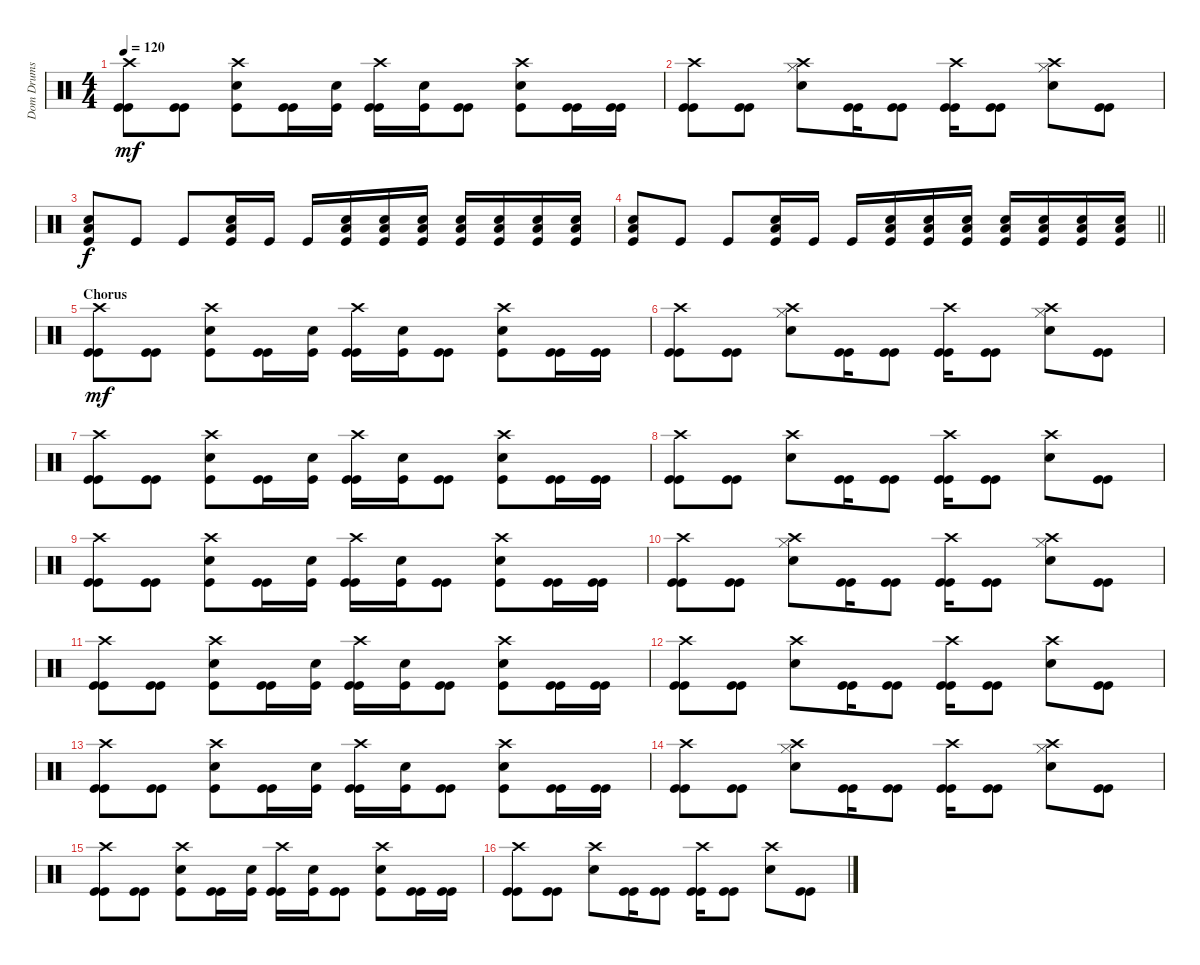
\track ("Dom Drums" "Dom Drums") {instrument percussion}
\staff {score}
\articulation defaults
\ts (4 4)
\tempo 120
\clef neutral
\ks c
("Crash high (hit)" "Kick (hit)" "Kick (hit)").8{dy mf} ("Kick (hit)" "Kick (hit)").8 ("Crash high (hit)" "Kick (hit)" "Electric Snare (hit)").8 ("Kick (hit)" "Kick (hit)").16 ("Kick (hit)" "Electric Snare (hit)").16 ("Crash high (hit)" "Kick (hit)" "Kick (hit)").16 ("Kick (hit)" "Electric Snare (hit)").16 ("Kick (hit)" "Kick (hit)").8 ("Crash high (hit)" "Kick (hit)" "Electric Snare (hit)").8 ("Kick (hit)" "Kick (hit)").16 ("Kick (hit)" "Kick (hit)").16 |
("Kick (hit)" "Kick (hit)" "Crash high (hit)").8 ("Kick (hit)" "Kick (hit)").8 ("Electric Snare (hit)" "Hi-Hat (closed)" "Crash high (hit)").8 ("Kick (hit)" "Kick (hit)").16 ("Kick (hit)" "Kick (hit)").8 ("Kick (hit)" "Kick (hit)" "Crash high (hit)").16 ("Kick (hit)" "Kick (hit)").8 ("Electric Snare (hit)" "Hi-Hat (closed)" "Crash high (hit)").8 ("Kick (hit)" "Kick (hit)").8 |
("Kick (hit)" "Low Floor Tom (hit)" "Hand Clap (hit)").8{dy f} "Kick (hit)".8 "Kick (hit)".8 ("Kick (hit)" "Low Floor Tom (hit)" "Hand Clap (hit)").16 "Kick (hit)".16 "Kick (hit)".16 ("Kick (hit)" "Low Floor Tom (hit)" "Hand Clap (hit)").16 ("Kick (hit)" "Low Floor Tom (hit)" "Hand Clap (hit)").16 ("Kick (hit)" "Low Floor Tom (hit)" "Hand Clap (hit)").16 ("Kick (hit)" "Low Floor Tom (hit)" "Hand Clap (hit)").16 ("Kick (hit)" "Low Floor Tom (hit)" "Hand Clap (hit)").16 ("Kick (hit)" "Low Floor Tom (hit)" "Hand Clap (hit)").16 ("Kick (hit)" "Low Floor Tom (hit)" "Hand Clap (hit)").16 |
\barLineRight lightlight
("Kick (hit)" "Low Floor Tom (hit)" "Hand Clap (hit)").8 "Kick (hit)".8 "Kick (hit)".8 ("Kick (hit)" "Low Floor Tom (hit)" "Hand Clap (hit)").16 "Kick (hit)".16 "Kick (hit)".16 ("Kick (hit)" "Low Floor Tom (hit)" "Hand Clap (hit)").16 ("Kick (hit)" "Low Floor Tom (hit)" "Hand Clap (hit)").16 ("Kick (hit)" "Low Floor Tom (hit)" "Hand Clap (hit)").16 ("Kick (hit)" "Low Floor Tom (hit)" "Hand Clap (hit)").16 ("Kick (hit)" "Low Floor Tom (hit)" "Hand Clap (hit)").16 ("Kick (hit)" "Low Floor Tom (hit)" "Hand Clap (hit)").16 ("Kick (hit)" "Low Floor Tom (hit)" "Hand Clap (hit)").16 |
\section ("" "Chorus")
("Crash high (hit)" "Kick (hit)" "Kick (hit)").8{dy mf} ("Kick (hit)" "Kick (hit)").8 ("Crash high (hit)" "Kick (hit)" "Electric Snare (hit)").8 ("Kick (hit)" "Kick (hit)").16 ("Kick (hit)" "Electric Snare (hit)").16 ("Crash high (hit)" "Kick (hit)" "Kick (hit)").16 ("Kick (hit)" "Electric Snare (hit)").16 ("Kick (hit)" "Kick (hit)").8 ("Crash high (hit)" "Kick (hit)" "Electric Snare (hit)").8 ("Kick (hit)" "Kick (hit)").16 ("Kick (hit)" "Kick (hit)").16 |
("Kick (hit)" "Kick (hit)" "Crash high (hit)").8 ("Kick (hit)" "Kick (hit)").8 ("Electric Snare (hit)" "Hi-Hat (closed)" "Crash high (hit)").8 ("Kick (hit)" "Kick (hit)").16 ("Kick (hit)" "Kick (hit)").8 ("Kick (hit)" "Kick (hit)" "Crash high (hit)").16 ("Kick (hit)" "Kick (hit)").8 ("Electric Snare (hit)" "Hi-Hat (closed)" "Crash high (hit)").8 ("Kick (hit)" "Kick (hit)").8 |
("Kick (hit)" "Kick (hit)" "Crash high (hit)").8 ("Kick (hit)" "Kick (hit)").8 ("Kick (hit)" "Electric Snare (hit)" "Crash high (hit)").8 ("Kick (hit)" "Kick (hit)").16 ("Kick (hit)" "Electric Snare (hit)").16 ("Kick (hit)" "Kick (hit)" "Crash high (hit)").16 ("Kick (hit)" "Electric Snare (hit)").16 ("Kick (hit)" "Kick (hit)").8 ("Kick (hit)" "Electric Snare (hit)" "Crash high (hit)").8 ("Kick (hit)" "Kick (hit)").16 ("Kick (hit)" "Kick (hit)").16 |
("Kick (hit)" "Kick (hit)" "Crash high (hit)").8 ("Kick (hit)" "Kick (hit)").8 ("Electric Snare (hit)" "Crash high (hit)").8 ("Kick (hit)" "Kick (hit)").16 ("Kick (hit)" "Kick (hit)").8 ("Kick (hit)" "Kick (hit)" "Crash high (hit)").16 ("Kick (hit)" "Kick (hit)").8 ("Electric Snare (hit)" "Crash high (hit)").8 ("Kick (hit)" "Kick (hit)").8 |
("Crash high (hit)" "Kick (hit)" "Kick (hit)").8 ("Kick (hit)" "Kick (hit)").8 ("Crash high (hit)" "Kick (hit)" "Electric Snare (hit)").8 ("Kick (hit)" "Kick (hit)").16 ("Kick (hit)" "Electric Snare (hit)").16 ("Crash high (hit)" "Kick (hit)" "Kick (hit)").16 ("Kick (hit)" "Electric Snare (hit)").16 ("Kick (hit)" "Kick (hit)").8 ("Crash high (hit)" "Kick (hit)" "Electric Snare (hit)").8 ("Kick (hit)" "Kick (hit)").16 ("Kick (hit)" "Kick (hit)").16 |
("Kick (hit)" "Kick (hit)" "Crash high (hit)").8 ("Kick (hit)" "Kick (hit)").8 ("Electric Snare (hit)" "Hi-Hat (closed)" "Crash high (hit)").8 ("Kick (hit)" "Kick (hit)").16 ("Kick (hit)" "Kick (hit)").8 ("Kick (hit)" "Kick (hit)" "Crash high (hit)").16 ("Kick (hit)" "Kick (hit)").8 ("Electric Snare (hit)" "Hi-Hat (closed)" "Crash high (hit)").8 ("Kick (hit)" "Kick (hit)").8 |
("Kick (hit)" "Kick (hit)" "Crash high (hit)").8 ("Kick (hit)" "Kick (hit)").8 ("Kick (hit)" "Electric Snare (hit)" "Crash high (hit)").8 ("Kick (hit)" "Kick (hit)").16 ("Kick (hit)" "Electric Snare (hit)").16 ("Kick (hit)" "Kick (hit)" "Crash high (hit)").16 ("Kick (hit)" "Electric Snare (hit)").16 ("Kick (hit)" "Kick (hit)").8 ("Kick (hit)" "Electric Snare (hit)" "Crash high (hit)").8 ("Kick (hit)" "Kick (hit)").16 ("Kick (hit)" "Kick (hit)").16 |
("Kick (hit)" "Kick (hit)" "Crash high (hit)").8 ("Kick (hit)" "Kick (hit)").8 ("Electric Snare (hit)" "Crash high (hit)").8 ("Kick (hit)" "Kick (hit)").16 ("Kick (hit)" "Kick (hit)").8 ("Kick (hit)" "Kick (hit)" "Crash high (hit)").16 ("Kick (hit)" "Kick (hit)").8 ("Electric Snare (hit)" "Crash high (hit)").8 ("Kick (hit)" "Kick (hit)").8 |
("Crash high (hit)" "Kick (hit)" "Kick (hit)").8 ("Kick (hit)" "Kick (hit)").8 ("Crash high (hit)" "Kick (hit)" "Electric Snare (hit)").8 ("Kick (hit)" "Kick (hit)").16 ("Kick (hit)" "Electric Snare (hit)").16 ("Crash high (hit)" "Kick (hit)" "Kick (hit)").16 ("Kick (hit)" "Electric Snare (hit)").16 ("Kick (hit)" "Kick (hit)").8 ("Crash high (hit)" "Kick (hit)" "Electric Snare (hit)").8 ("Kick (hit)" "Kick (hit)").16 ("Kick (hit)" "Kick (hit)").16 |
("Kick (hit)" "Kick (hit)" "Crash high (hit)").8 ("Kick (hit)" "Kick (hit)").8 ("Electric Snare (hit)" "Hi-Hat (closed)" "Crash high (hit)").8 ("Kick (hit)" "Kick (hit)").16 ("Kick (hit)" "Kick (hit)").8 ("Kick (hit)" "Kick (hit)" "Crash high (hit)").16 ("Kick (hit)" "Kick (hit)").8 ("Electric Snare (hit)" "Hi-Hat (closed)" "Crash high (hit)").8 ("Kick (hit)" "Kick (hit)").8 |
("Kick (hit)" "Kick (hit)" "Crash high (hit)").8 ("Kick (hit)" "Kick (hit)").8 ("Kick (hit)" "Electric Snare (hit)" "Crash high (hit)").8 ("Kick (hit)" "Kick (hit)").16 ("Kick (hit)" "Electric Snare (hit)").16 ("Kick (hit)" "Kick (hit)" "Crash high (hit)").16 ("Kick (hit)" "Electric Snare (hit)").16 ("Kick (hit)" "Kick (hit)").8 ("Kick (hit)" "Electric Snare (hit)" "Crash high (hit)").8 ("Kick (hit)" "Kick (hit)").16 ("Kick (hit)" "Kick (hit)").16 |
("Kick (hit)" "Kick (hit)" "Crash high (hit)").8 ("Kick (hit)" "Kick (hit)").8 ("Electric Snare (hit)" "Crash high (hit)").8 ("Kick (hit)" "Kick (hit)").16 ("Kick (hit)" "Kick (hit)").8 ("Kick (hit)" "Kick (hit)" "Crash high (hit)").16 ("Kick (hit)" "Kick (hit)").8 ("Electric Snare (hit)" "Crash high (hit)").8 ("Kick (hit)" "Kick (hit)").8
